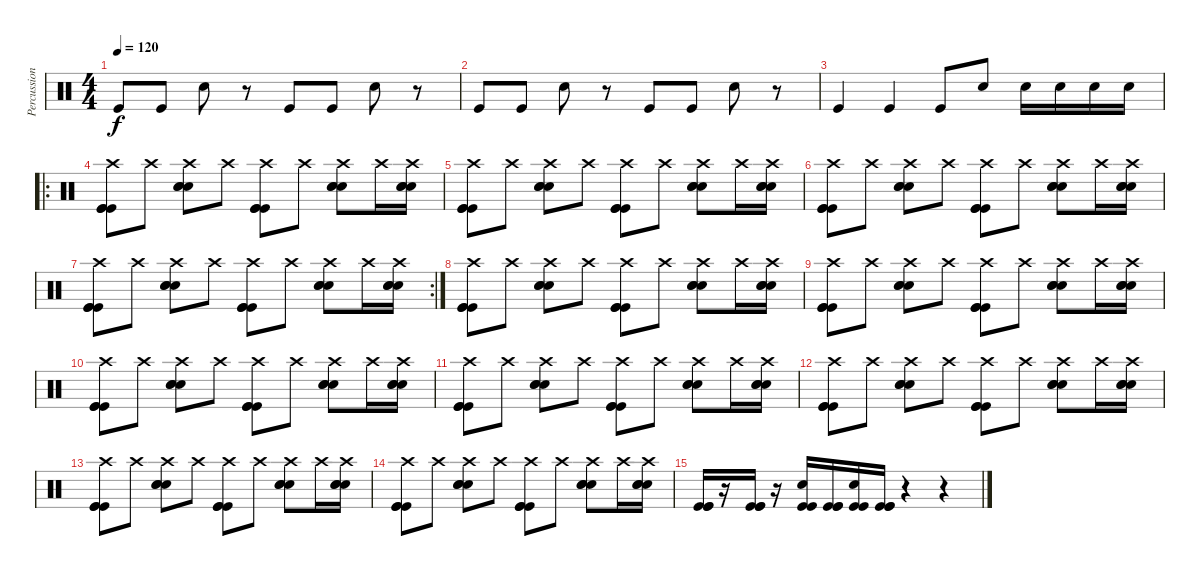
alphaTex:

\track ("Percussions" "Percussion") {instrument percussion}
\staff {score}
\articulation defaults
\ts (4 4)
\tempo 120
\clef neutral
\ks c "Kick (hit)".8{dy f} "Kick (hit)".8 "Electric Snare (hit)".8
r.8 "Kick (hit)".8 "Kick (hit)".8 "Electric Snare (hit)".8 r.8 |
"Kick (hit)".8 "Kick (hit)".8 "Electric Snare (hit)".8 r.8 "Kick (hit)".8 "Kick (hit)".8 "Electric Snare (hit)".8 r.8 |
"Kick (hit)".4 "Kick (hit)".4 "Kick (hit)".8 "Electric Snare (hit)".8 "Electric Snare (hit)".16 "Electric Snare (hit)".16 "Electric Snare (hit)".16 "Electric Snare (hit)".16 |
\ro
("Crash high (hit)" "Kick (hit)" "Kick (hit)" "Kick (hit)").8 "Crash high (hit)".8 ("Crash high (hit)" "Electric Snare (hit)" "Electric Snare (hit)" "Electric Snare (hit)").8 "Crash high (hit)".8 ("Crash high (hit)" "Kick (hit)" "Kick (hit)" "Kick (hit)").8 "Crash high (hit)".8 ("Crash high (hit)" "Electric Snare (hit)" "Electric Snare (hit)" "Electric Snare (hit)").8 "Crash high (hit)".16 ("Crash high (hit)" "Electric Snare (hit)" "Electric Snare (hit)" "Electric Snare (hit)").16 |
("Crash high (hit)" "Kick (hit)" "Kick (hit)" "Kick (hit)").8 "Crash high (hit)".8 ("Crash high (hit)" "Electric Snare (hit)" "Electric Snare (hit)" "Electric Snare (hit)").8 "Crash high (hit)".8 ("Crash high (hit)" "Kick (hit)" "Kick (hit)" "Kick (hit)").8 "Crash high (hit)".8 ("Crash high (hit)" "Electric Snare (hit)" "Electric Snare (hit)" "Electric Snare (hit)").8 "Crash high (hit)".16 ("Crash high (hit)" "Electric Snare (hit)" "Electric Snare (hit)" "Electric Snare (hit)").16 |
("Crash high (hit)" "Kick (hit)" "Kick (hit)" "Kick (hit)").8 "Crash high (hit)".8 ("Crash high (hit)" "Electric Snare (hit)" "Electric Snare (hit)" "Electric Snare (hit)").8 "Crash high (hit)".8 ("Crash high (hit)" "Kick (hit)" "Kick (hit)" "Kick (hit)").8 "Crash high (hit)".8 ("Crash high (hit)" "Electric Snare (hit)" "Electric Snare (hit)" "Electric Snare (hit)").8 "Crash high (hit)".16 ("Crash high (hit)" "Electric Snare (hit)" "Electric Snare (hit)" "Electric Snare (hit)").16 |
\rc 2
("Crash high (hit)" "Kick (hit)" "Kick (hit)" "Kick (hit)").8 "Crash high (hit)".8 ("Crash high (hit)" "Electric Snare (hit)" "Electric Snare (hit)" "Electric Snare (hit)").8 "Crash high (hit)".8 ("Crash high (hit)" "Kick (hit)" "Kick (hit)" "Kick (hit)").8 "Crash high (hit)".8 ("Crash high (hit)" "Electric Snare (hit)" "Electric Snare (hit)" "Electric Snare (hit)").8 "Crash high (hit)".16 ("Crash high (hit)" "Electric Snare (hit)" "Electric Snare (hit)" "Electric Snare (hit)").16 |
("Crash high (hit)" "Kick (hit)" "Kick (hit)" "Kick (hit)").8 "Crash high (hit)".8 ("Crash high (hit)" "Electric Snare (hit)" "Electric Snare (hit)" "Electric Snare (hit)").8 "Crash high (hit)".8 ("Crash high (hit)" "Kick (hit)" "Kick (hit)" "Kick (hit)").8 "Crash high (hit)".8 ("Crash high (hit)" "Electric Snare (hit)" "Electric Snare (hit)" "Electric Snare (hit)").8 "Crash high (hit)".16 ("Crash high (hit)" "Electric Snare (hit)" "Electric Snare (hit)" "Electric Snare (hit)").16 |
("Crash high (hit)" "Kick (hit)" "Kick (hit)" "Kick (hit)").8 "Crash high (hit)".8 ("Crash high (hit)" "Electric Snare (hit)" "Electric Snare (hit)" "Electric Snare (hit)").8 "Crash high (hit)".8 ("Crash high (hit)" "Kick (hit)" "Kick (hit)" "Kick (hit)").8 "Crash high (hit)".8 ("Crash high (hit)" "Electric Snare (hit)" "Electric Snare (hit)" "Electric Snare (hit)").8 "Crash high (hit)".16 ("Crash high (hit)" "Electric Snare (hit)" "Electric Snare (hit)" "Electric Snare (hit)").16 |
("Crash high (hit)" "Kick (hit)" "Kick (hit)" "Kick (hit)").8 "Crash high (hit)".8 ("Crash high (hit)" "Electric Snare (hit)" "Electric Snare (hit)" "Electric Snare (hit)").8 "Crash high (hit)".8 ("Crash high (hit)" "Kick (hit)" "Kick (hit)" "Kick (hit)").8 "Crash high (hit)".8 ("Crash high (hit)" "Electric Snare (hit)" "Electric Snare (hit)" "Electric Snare (hit)").8 "Crash high (hit)".16 ("Crash high (hit)" "Electric Snare (hit)" "Electric Snare (hit)" "Electric Snare (hit)").16 |
("Crash high (hit)" "Kick (hit)" "Kick (hit)" "Kick (hit)").8 "Crash high (hit)".8 ("Crash high (hit)" "Electric Snare (hit)" "Electric Snare (hit)" "Electric Snare (hit)").8 "Crash high (hit)".8 ("Crash high (hit)" "Kick (hit)" "Kick (hit)" "Kick (hit)").8 "Crash high (hit)".8 ("Crash high (hit)" "Electric Snare (hit)" "Electric Snare (hit)" "Electric Snare (hit)").8 "Crash high (hit)".16 ("Crash high (hit)" "Electric Snare (hit)" "Electric Snare (hit)" "Electric Snare (hit)").16 |
("Crash high (hit)" "Kick (hit)" "Kick (hit)" "Kick (hit)").8 "Crash high (hit)".8 ("Crash high (hit)" "Electric Snare (hit)" "Electric Snare (hit)" "Electric Snare (hit)").8 "Crash high (hit)".8 ("Crash high (hit)" "Kick (hit)" "Kick (hit)" "Kick (hit)").8 "Crash high (hit)".8 ("Crash high (hit)" "Electric Snare (hit)" "Electric Snare (hit)" "Electric Snare (hit)").8 "Crash high (hit)".16 ("Crash high (hit)" "Electric Snare (hit)" "Electric Snare (hit)" "Electric Snare (hit)").16 |
("Crash high (hit)" "Kick (hit)" "Kick (hit)" "Kick (hit)").8 "Crash high (hit)".8 ("Crash high (hit)" "Electric Snare (hit)" "Electric Snare (hit)" "Electric Snare (hit)").8 "Crash high (hit)".8 ("Crash high (hit)" "Kick (hit)" "Kick (hit)" "Kick (hit)").8 "Crash high (hit)".8 ("Crash high (hit)" "Electric Snare (hit)" "Electric Snare (hit)" "Electric Snare (hit)").8 "Crash high (hit)".16 ("Crash high (hit)" "Electric Snare (hit)" "Electric Snare (hit)" "Electric Snare (hit)").16 |
("Crash high (hit)" "Kick (hit)" "Kick (hit)" "Kick (hit)").8 "Crash high (hit)".8 ("Crash high (hit)" "Electric Snare (hit)" "Electric Snare (hit)" "Electric Snare (hit)").8 "Crash high (hit)".8 ("Crash high (hit)" "Kick (hit)" "Kick (hit)" "Kick (hit)").8 "Crash high (hit)".8 ("Crash high (hit)" "Electric Snare (hit)" "Electric Snare (hit)" "Electric Snare (hit)").8 "Crash high (hit)".16 ("Crash high (hit)" "Electric Snare (hit)" "Electric Snare (hit)" "Electric Snare (hit)").16 |
("Kick (hit)" "Kick (hit)" "Kick (hit)").16 r.16 ("Kick (hit)" "Kick (hit)" "Kick (hit)").16 r.16 ("Kick (hit)" "Kick (hit)" "Electric Snare (hit)").16 ("Kick (hit)" "Kick (hit)" "Kick (hit)").16 ("Kick (hit)" "Kick (hit)" "Electric Snare (hit)").16 ("Kick (hit)" "Kick (hit)" "Kick (hit)").16 r.4 r.4
